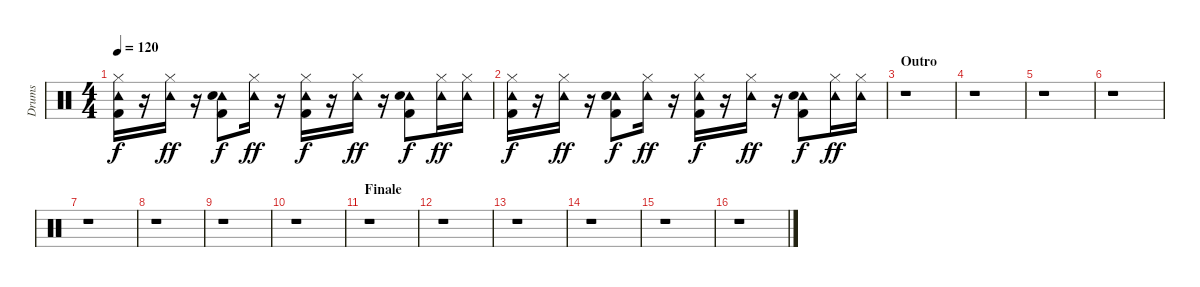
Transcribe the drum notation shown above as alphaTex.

\track ("Drums" "Drums") {instrument percussion}
\staff {score}
\articulation defaults
\ts (4 4)
\tempo 120
\clef neutral
\ks c
("Hi-Hat (closed)" "Tambourine (hit)" "Kick (hit) 2").16{dy f} r.16 ("Hi-Hat (closed)" "Tambourine (hit)").16{dy ff} r.16 ("Tambourine (hit)" "Electric Snare (hit)" "Kick (hit) 2").8{dy f} ("Hi-Hat (closed)" "Tambourine (hit)").16{dy ff} r.16 ("Hi-Hat (closed)" "Tambourine (hit)" "Kick (hit) 2").16{dy f} r.16 ("Hi-Hat (closed)" "Tambourine (hit)").16{dy ff} r.16 ("Tambourine (hit)" "Electric Snare (hit)" "Kick (hit) 2").8{dy f} ("Hi-Hat (closed)" "Tambourine (hit)").16{dy ff} ("Hi-Hat (closed)" "Tambourine (hit)").16 |
("Hi-Hat (closed)" "Tambourine (hit)" "Kick (hit) 2").16{dy f} r.16 ("Hi-Hat (closed)" "Tambourine (hit)").16{dy ff} r.16 ("Tambourine (hit)" "Electric Snare (hit)" "Kick (hit) 2").8{dy f} ("Hi-Hat (closed)" "Tambourine (hit)").16{dy ff} r.16 ("Hi-Hat (closed)" "Tambourine (hit)" "Kick (hit) 2").16{dy f} r.16 ("Hi-Hat (closed)" "Tambourine (hit)").16{dy ff} r.16 ("Tambourine (hit)" "Electric Snare (hit)" "Kick (hit) 2").8{dy f} ("Hi-Hat (closed)" "Tambourine (hit)").16{dy ff} ("Hi-Hat (closed)" "Tambourine (hit)").16 |
\section ("" "Outro")
r.1 |
r.1 |
r.1 |
r.1 |
r.1 |
r.1 |
r.1 |
r.1 |
\section ("" "Finale")
r.1 |
r.1 |
r.1 |
r.1 |
r.1 |
r.1
